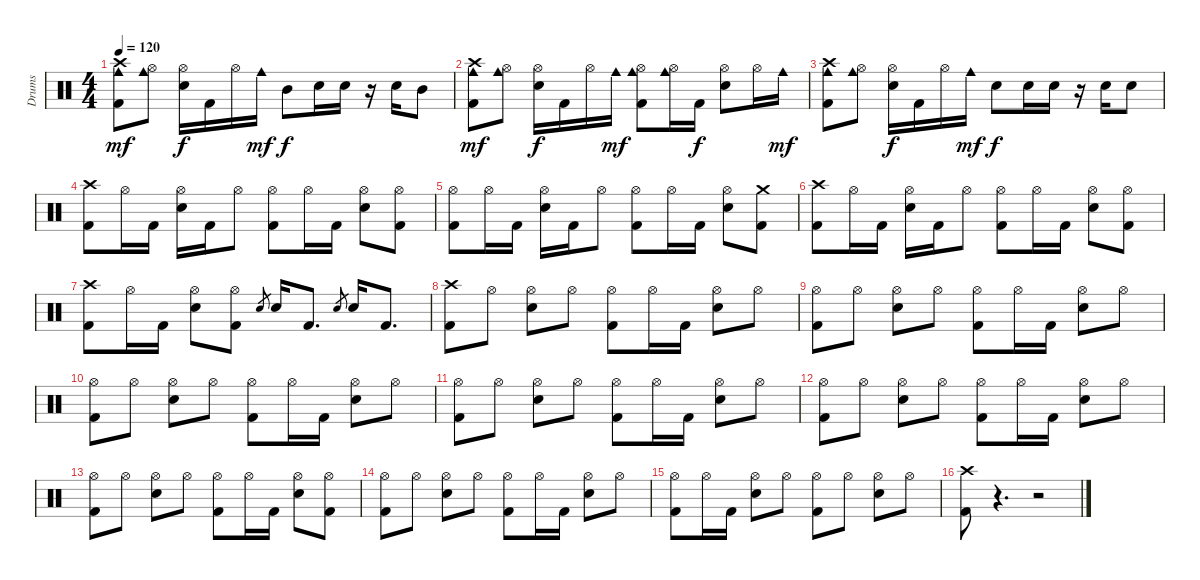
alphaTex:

\track ("Drums" "Drums") {instrument percussion}
\staff {score}
\articulation defaults
\ts (4 4)
\tempo 120
\clef neutral
\ks c
("Kick (hit) 2" "Crash high (hit)" "Cowbell medium (hit)").8{dy mf} ("Hi-Hat (open)" "Cowbell medium (hit)").8 ("Snare (hit) 2" "Hi-Hat (open)").16{dy f} "Kick (hit) 2".16 "Hi-Hat (open)".16 "Cowbell medium (hit)".16{dy mf} "Mid Tom (hit)".8{dy f} "Snare (hit) 2".16 "Snare (hit) 2".16 r.16 "Snare (hit) 2".16 "Mid Tom (hit)".8 |
("Kick (hit) 2" "Crash high (hit)" "Cowbell medium (hit)").8{dy mf} ("Hi-Hat (open)" "Cowbell medium (hit)").8 ("Snare (hit) 2" "Hi-Hat (open)").16{dy f} "Kick (hit) 2".16 "Hi-Hat (open)".16 "Cowbell medium (hit)".16{dy mf} ("Kick (hit) 2" "Hi-Hat (open)" "Cowbell medium (hit)").8 ("Hi-Hat (open)" "Cowbell medium (hit)").16 "Kick (hit) 2".16{dy f} ("Snare (hit) 2" "Hi-Hat (open)").8 "Hi-Hat (open)".16 "Cowbell medium (hit)".16{dy mf} |
("Kick (hit) 2" "Crash high (hit)" "Cowbell medium (hit)").8 ("Hi-Hat (open)" "Cowbell medium (hit)").8 ("Snare (hit) 2" "Hi-Hat (open)").16{dy f} "Kick (hit) 2".16 "Hi-Hat (open)".16 "Cowbell medium (hit)".16{dy mf} "Snare (hit) 2".8{dy f} "Snare (hit) 2".16 "Snare (hit) 2".16 r.16 "Snare (hit) 2".16 "Snare (hit) 2".8 |
("Kick (hit) 2" "Crash high (hit)").8 "Hi-Hat (open)".16 "Kick (hit) 2".16 ("Snare (hit) 2" "Hi-Hat (open)").16 "Kick (hit) 2".16 "Hi-Hat (open)".8 ("Kick (hit) 2" "Hi-Hat (open)").8 "Hi-Hat (open)".16 "Kick (hit) 2".16 ("Snare (hit) 2" "Hi-Hat (open)").8 ("Kick (hit) 2" "Hi-Hat (open)").8 |
("Kick (hit) 2" "Hi-Hat (open)").8 "Hi-Hat (open)".16 "Kick (hit) 2".16 ("Snare (hit) 2" "Hi-Hat (open)").16 "Kick (hit) 2".16 "Hi-Hat (open)".8 ("Kick (hit) 2" "Hi-Hat (open)").8 "Hi-Hat (open)".16 "Kick (hit) 2".16 ("Snare (hit) 2" "Hi-Hat (open)").8 ("Kick (hit) 2" "Crash medium (hit)").8 |
("Kick (hit) 2" "Crash high (hit)").8 "Hi-Hat (open)".16 "Kick (hit) 2".16 ("Snare (hit) 2" "Hi-Hat (open)").16 "Kick (hit) 2".16 "Hi-Hat (open)".8 ("Kick (hit) 2" "Hi-Hat (open)").8 "Hi-Hat (open)".16 "Kick (hit) 2".16 ("Snare (hit) 2" "Hi-Hat (open)").8 ("Kick (hit) 2" "Hi-Hat (open)").8 |
("Kick (hit) 2" "Crash high (hit)").8 "Hi-Hat (open)".16 "Kick (hit) 2".16 ("Snare (hit) 2" "Hi-Hat (open)").8 ("Kick (hit) 2" "Hi-Hat (open)").8 "Snare (hit) 2".8{gr} "Snare (hit) 2".16 "Kick (hit) 2".8{d} "Snare (hit) 2".8{gr} "Snare (hit) 2".16 "Kick (hit) 2".8{d} |
("Kick (hit) 2" "Crash high (hit)").8 "Hi-Hat (open)".8 ("Snare (hit) 2" "Hi-Hat (open)").8 "Hi-Hat (open)".8 ("Kick (hit) 2" "Hi-Hat (open)").8 "Hi-Hat (open)".16 "Kick (hit) 2".16 ("Snare (hit) 2" "Hi-Hat (open)").8 "Hi-Hat (open)".8 |
("Kick (hit) 2" "Hi-Hat (open)").8 "Hi-Hat (open)".8 ("Snare (hit) 2" "Hi-Hat (open)").8 "Hi-Hat (open)".8 ("Kick (hit) 2" "Hi-Hat (open)").8 "Hi-Hat (open)".16 "Kick (hit) 2".16 ("Snare (hit) 2" "Hi-Hat (open)").8 "Hi-Hat (open)".8 |
("Kick (hit) 2" "Hi-Hat (open)").8 "Hi-Hat (open)".8 ("Snare (hit) 2" "Hi-Hat (open)").8 "Hi-Hat (open)".8 ("Kick (hit) 2" "Hi-Hat (open)").8 "Hi-Hat (open)".16 "Kick (hit) 2".16 ("Snare (hit) 2" "Hi-Hat (open)").8 "Hi-Hat (open)".8 |
("Kick (hit) 2" "Hi-Hat (open)").8 "Hi-Hat (open)".8 ("Snare (hit) 2" "Hi-Hat (open)").8 "Hi-Hat (open)".8 ("Kick (hit) 2" "Hi-Hat (open)").8 "Hi-Hat (open)".16 "Kick (hit) 2".16 ("Snare (hit) 2" "Hi-Hat (open)").8 "Hi-Hat (open)".8 |
("Kick (hit) 2" "Hi-Hat (open)").8 "Hi-Hat (open)".8 ("Snare (hit) 2" "Hi-Hat (open)").8 "Hi-Hat (open)".8 ("Kick (hit) 2" "Hi-Hat (open)").8 "Hi-Hat (open)".16 "Kick (hit) 2".16 ("Snare (hit) 2" "Hi-Hat (open)").8 "Hi-Hat (open)".8 |
("Kick (hit) 2" "Hi-Hat (open)").8 "Hi-Hat (open)".8 ("Snare (hit) 2" "Hi-Hat (open)").8 "Hi-Hat (open)".8 ("Kick (hit) 2" "Hi-Hat (open)").8 "Hi-Hat (open)".16 "Kick (hit) 2".16 ("Snare (hit) 2" "Hi-Hat (open)").8 ("Kick (hit) 2" "Hi-Hat (open)").8 |
("Kick (hit) 2" "Hi-Hat (open)").8 "Hi-Hat (open)".8 ("Snare (hit) 2" "Hi-Hat (open)").8 "Hi-Hat (open)".8 ("Kick (hit) 2" "Hi-Hat (open)").8 "Hi-Hat (open)".16 "Kick (hit) 2".16 ("Snare (hit) 2" "Hi-Hat (open)").8 "Hi-Hat (open)".8 |
("Kick (hit) 2" "Hi-Hat (open)").8 "Hi-Hat (open)".16 "Kick (hit) 2".16 ("Snare (hit) 2" "Hi-Hat (open)").8 "Hi-Hat (open)".8 ("Kick (hit) 2" "Hi-Hat (open)").8 "Hi-Hat (open)".8 ("Snare (hit) 2" "Hi-Hat (open)").8 "Hi-Hat (open)".8 |
("Kick (hit) 2" "Crash high (hit)").8 r.4{d} r.2
